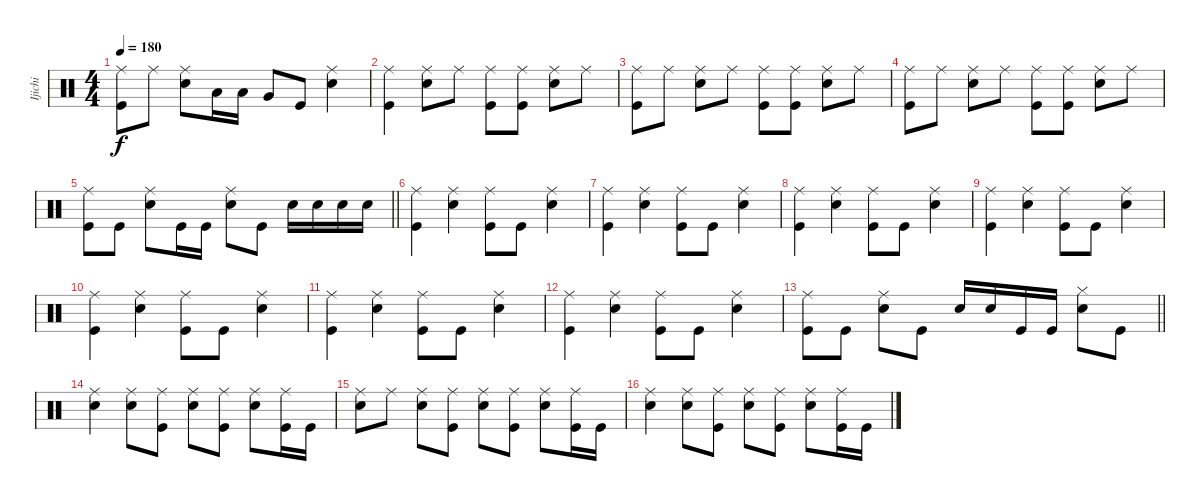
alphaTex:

\track ("Ijichi" "Ijichi") {instrument percussion}
\staff {score}
\articulation defaults
\ts (4 4)
\tempo 180
\clef neutral
\ks c
("Ride (middle)" "Kick (hit)").8{dy f} "Ride (middle)".8 ("Ride (middle)" "Snare (hit) 2").8 "Low Tom (hit)".16 "Low Tom (hit)".16 "Very Low Tom (hit)".8 "Kick (hit)".8 ("Ride (middle)" "Snare (hit) 2").4 |
("Ride (middle)" "Kick (hit)").4 ("Ride (middle)" "Snare (hit) 2").8 "Ride (middle)".8 ("Ride (middle)" "Kick (hit)").8 ("Ride (middle)" "Kick (hit)").8 ("Ride (middle)" "Snare (hit) 2").8 "Ride (middle)".8 |
("Ride (middle)" "Kick (hit)").8 "Ride (middle)".8 ("Ride (middle)" "Snare (hit) 2").8 "Ride (middle)".8 ("Ride (middle)" "Kick (hit)").8 ("Ride (middle)" "Kick (hit)").8 ("Ride (middle)" "Snare (hit) 2").8 "Ride (middle)".8 |
("Ride (middle)" "Kick (hit)").8 "Ride (middle)".8 ("Ride (middle)" "Snare (hit) 2").8 "Ride (middle)".8 ("Ride (middle)" "Kick (hit)").8 ("Ride (middle)" "Kick (hit)").8 ("Ride (middle)" "Snare (hit) 2").8 "Ride (middle)".8 |
\barLineRight lightlight
("Ride (middle)" "Kick (hit)").8 "Kick (hit)".8 ("Ride (middle)" "Snare (hit) 2").8 "Kick (hit)".16 "Kick (hit)".16 ("Ride (middle)" "Snare (hit) 2").8 "Kick (hit)".8 "Snare (hit) 2".16 "Snare (hit) 2".16 "Snare (hit) 2".16 "Snare (hit) 2".16 |
("Ride (middle)" "Kick (hit)").4 ("Ride (middle)" "Snare (hit) 2").4 ("Ride (middle)" "Kick (hit)").8 "Kick (hit)".8 ("Ride (middle)" "Snare (hit) 2").4 |
("Ride (middle)" "Kick (hit)").4 ("Ride (middle)" "Snare (hit) 2").4 ("Ride (middle)" "Kick (hit)").8 "Kick (hit)".8 ("Ride (middle)" "Snare (hit) 2").4 |
("Ride (middle)" "Kick (hit)").4 ("Ride (middle)" "Snare (hit) 2").4 ("Ride (middle)" "Kick (hit)").8 "Kick (hit)".8 ("Ride (middle)" "Snare (hit) 2").4 |
("Ride (middle)" "Kick (hit)").4 ("Ride (middle)" "Snare (hit) 2").4 ("Ride (middle)" "Kick (hit)").8 "Kick (hit)".8 ("Ride (middle)" "Snare (hit) 2").4 |
("Ride (middle)" "Kick (hit)").4 ("Ride (middle)" "Snare (hit) 2").4 ("Ride (middle)" "Kick (hit)").8 "Kick (hit)".8 ("Ride (middle)" "Snare (hit) 2").4 |
("Ride (middle)" "Kick (hit)").4 ("Ride (middle)" "Snare (hit) 2").4 ("Ride (middle)" "Kick (hit)").8 "Kick (hit)".8 ("Ride (middle)" "Snare (hit) 2").4 |
("Ride (middle)" "Kick (hit)").4 ("Ride (middle)" "Snare (hit) 2").4 ("Ride (middle)" "Kick (hit)").8 "Kick (hit)".8 ("Ride (middle)" "Snare (hit) 2").4 |
\barLineRight lightlight
("Ride (middle)" "Kick (hit)").8 "Kick (hit)".8 ("Ride (middle)" "Snare (hit) 2").8 "Kick (hit)".8 "Snare (hit) 2".16 "Snare (hit) 2".16 "Kick (hit)".16 "Kick (hit)".16 ("Hi-Hat (closed)" "Snare (hit) 2").8 "Kick (hit)".8 |
("Ride (middle)" "Snare (hit) 2").4 ("Ride (middle)" "Snare (hit) 2").8 ("Ride (middle)" "Kick (hit)").8 ("Ride (middle)" "Snare (hit) 2").8 ("Ride (middle)" "Kick (hit)").8 ("Ride (middle)" "Snare (hit) 2").8 ("Ride (middle)" "Kick (hit)").16 "Kick (hit)".16 |
("Ride (middle)" "Snare (hit) 2").8 "Ride (middle)".8 ("Ride (middle)" "Snare (hit) 2").8 ("Ride (middle)" "Kick (hit)").8 ("Ride (middle)" "Snare (hit) 2").8 ("Ride (middle)" "Kick (hit)").8 ("Ride (middle)" "Snare (hit) 2").8 ("Ride (middle)" "Kick (hit)").16 "Kick (hit)".16 |
("Ride (middle)" "Snare (hit) 2").4 ("Ride (middle)" "Snare (hit) 2").8 ("Ride (middle)" "Kick (hit)").8 ("Ride (middle)" "Snare (hit) 2").8 ("Ride (middle)" "Kick (hit)").8 ("Ride (middle)" "Snare (hit) 2").8 ("Ride (middle)" "Kick (hit)").16 "Kick (hit)".16
